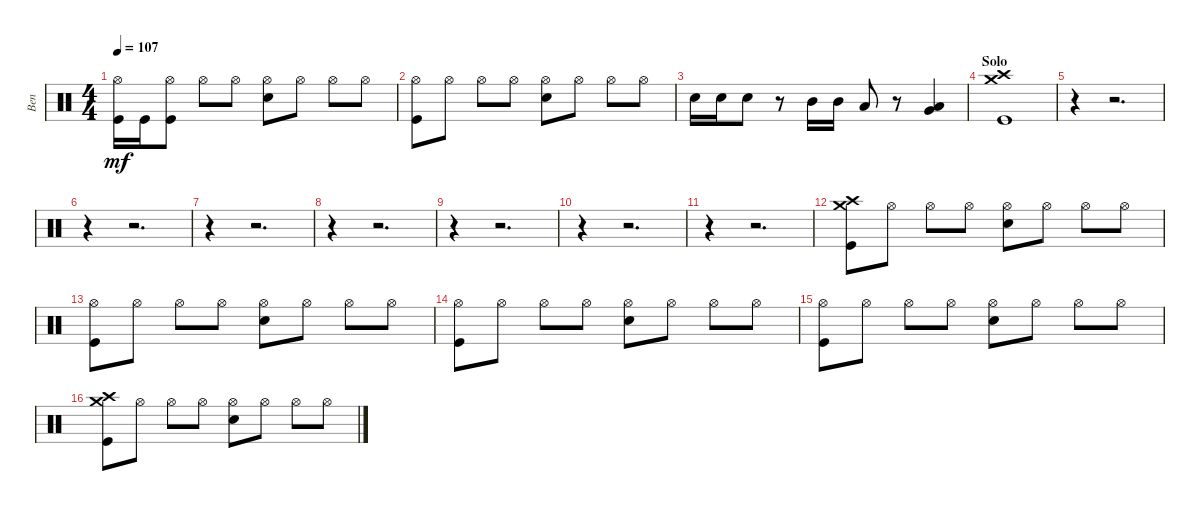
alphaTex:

\track ("Ben" "Ben") {instrument percussion}
\staff {score}
\articulation defaults
\ts (4 4)
\tempo 107
\clef neutral
\ks c
("Kick (hit)" "Hi-Hat (open)").16{dy mf} "Kick (hit)".16 ("Kick (hit)" "Hi-Hat (open)").8 "Hi-Hat (open)".8 "Hi-Hat (open)".8 ("Hi-Hat (open)" "Snare (hit) 2").8 "Hi-Hat (open)".8 "Hi-Hat (open)".8 "Hi-Hat (open)".8 |
("Kick (hit)" "Hi-Hat (open)").8 "Hi-Hat (open)".8 "Hi-Hat (open)".8 "Hi-Hat (open)".8 ("Hi-Hat (open)" "Snare (hit) 2").8 "Hi-Hat (open)".8 "Hi-Hat (open)".8 "Hi-Hat (open)".8 |
"Snare (hit) 2".16 "Snare (hit) 2".16 "Snare (hit) 2".8 r.8 "Mid Tom (hit)".16 "Mid Tom (hit)".16 "Low Tom (hit)".8 r.8 ("Low Floor Tom (hit)" "Very Low Tom (hit)").4 |
\section ("" "Solo")
("Kick (hit)" "Crash high (hit)" "Crash medium (hit)").1 |
r.4 r.2{d} |
r.4 r.2{d} |
r.4 r.2{d} |
r.4 r.2{d} |
r.4 r.2{d} |
r.4 r.2{d} |
r.4 r.2{d} |
("Kick (hit)" "Crash medium (hit)" "Crash high (hit)").8 "Hi-Hat (open)".8 "Hi-Hat (open)".8 "Hi-Hat (open)".8 ("Hi-Hat (open)" "Snare (hit) 2").8 "Hi-Hat (open)".8 "Hi-Hat (open)".8 "Hi-Hat (open)".8 |
("Kick (hit)" "Hi-Hat (open)").8 "Hi-Hat (open)".8 "Hi-Hat (open)".8 "Hi-Hat (open)".8 ("Hi-Hat (open)" "Snare (hit) 2").8 "Hi-Hat (open)".8 "Hi-Hat (open)".8 "Hi-Hat (open)".8 |
("Kick (hit)" "Hi-Hat (open)").8 "Hi-Hat (open)".8 "Hi-Hat (open)".8 "Hi-Hat (open)".8 ("Hi-Hat (open)" "Snare (hit) 2").8 "Hi-Hat (open)".8 "Hi-Hat (open)".8 "Hi-Hat (open)".8 |
("Kick (hit)" "Hi-Hat (open)").8 "Hi-Hat (open)".8 "Hi-Hat (open)".8 "Hi-Hat (open)".8 ("Hi-Hat (open)" "Snare (hit) 2").8 "Hi-Hat (open)".8 "Hi-Hat (open)".8 "Hi-Hat (open)".8 |
("Kick (hit)" "Crash medium (hit)" "Crash high (hit)").8 "Hi-Hat (open)".8 "Hi-Hat (open)".8 "Hi-Hat (open)".8 ("Hi-Hat (open)" "Snare (hit) 2").8 "Hi-Hat (open)".8 "Hi-Hat (open)".8 "Hi-Hat (open)".8
